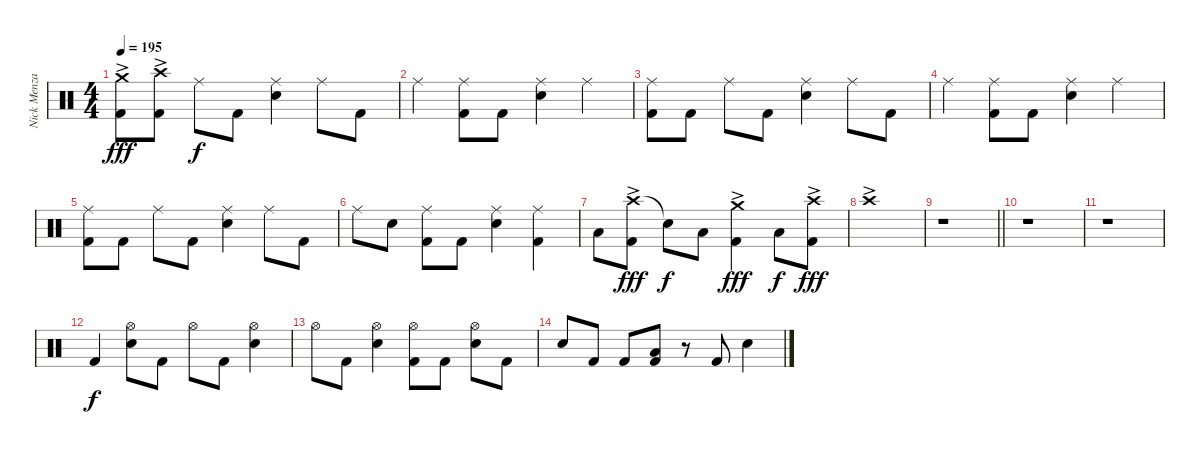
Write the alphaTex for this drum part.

\track ("Nick Menza" "Nick Menza") {instrument percussion}
\staff {score}
\articulation defaults
\ts (4 4)
\tempo 195
\clef neutral
\ks c
("Crash medium (hit)"{ac} "Kick (hit) 2").8{dy fff} ("Crash high (hit)"{ac} "Kick (hit) 2").8 "Ride (middle)".8{dy f} "Kick (hit) 2".8 ("Ride (middle)" "Snare (hit) 2").4 "Ride (middle)".8 "Kick (hit) 2".8 |
"Ride (middle)".4 ("Ride (middle)" "Kick (hit) 2").8 "Kick (hit) 2".8 ("Ride (middle)" "Snare (hit) 2").4 "Ride (middle)".4 |
("Ride (middle)" "Kick (hit) 2").8 "Kick (hit) 2".8 "Ride (middle)".8 "Kick (hit) 2".8 ("Ride (middle)" "Snare (hit) 2").4 "Ride (middle)".8 "Kick (hit) 2".8 |
"Ride (middle)".4 ("Ride (middle)" "Kick (hit) 2").8 "Kick (hit) 2".8 ("Ride (middle)" "Snare (hit) 2").4 "Ride (middle)".4 |
("Ride (middle)" "Kick (hit) 2").8 "Kick (hit) 2".8 "Ride (middle)".8 "Kick (hit) 2".8 ("Ride (middle)" "Snare (hit) 2").4 "Ride (middle)".8 "Kick (hit) 2".8 |
"Ride (middle)".8 "Snare (hit) 2".8 ("Ride (middle)" "Kick (hit) 2").8 "Kick (hit) 2".8 ("Ride (middle)" "Snare (hit) 2").4 ("Ride (middle)" "Kick (hit) 2").4 |
"Low Tom (hit)".8 ("Crash high (hit)"{ac} "Kick (hit) 2").8{dy fff} "Snare (hit)"{t}.8{dy f} "Low Tom (hit)".8 ("Crash medium (hit)"{ac} "Kick (hit) 2").4{dy fff} "Low Tom (hit)".8{dy f} ("Crash high (hit)"{ac} "Kick (hit) 2").8{dy fff} |
"Crash high (hit)"{ac}.1 |
\barLineRight lightlight
r.1 |
r.1 |
r.1 |
"Kick (hit) 2".4{dy f} ("Hi-Hat (open)" "Snare (hit) 2").8 "Kick (hit) 2".8 "Hi-Hat (open)".8 "Kick (hit) 2".8 ("Hi-Hat (open)" "Snare (hit) 2").4 |
"Hi-Hat (open)".8 "Kick (hit) 2".8 ("Hi-Hat (open)" "Snare (hit) 2").4 ("Hi-Hat (open)" "Kick (hit) 2").8 "Kick (hit) 2".8 ("Hi-Hat (open)" "Snare (hit) 2").8 "Kick (hit) 2".8 |
"Snare (hit) 2".8 "Kick (hit) 2".8 "Kick (hit) 2".8 ("Low Floor Tom (hit)" "Kick (hit) 2").8 r.8 "Kick (hit) 2".8 "Snare (hit) 2".4
